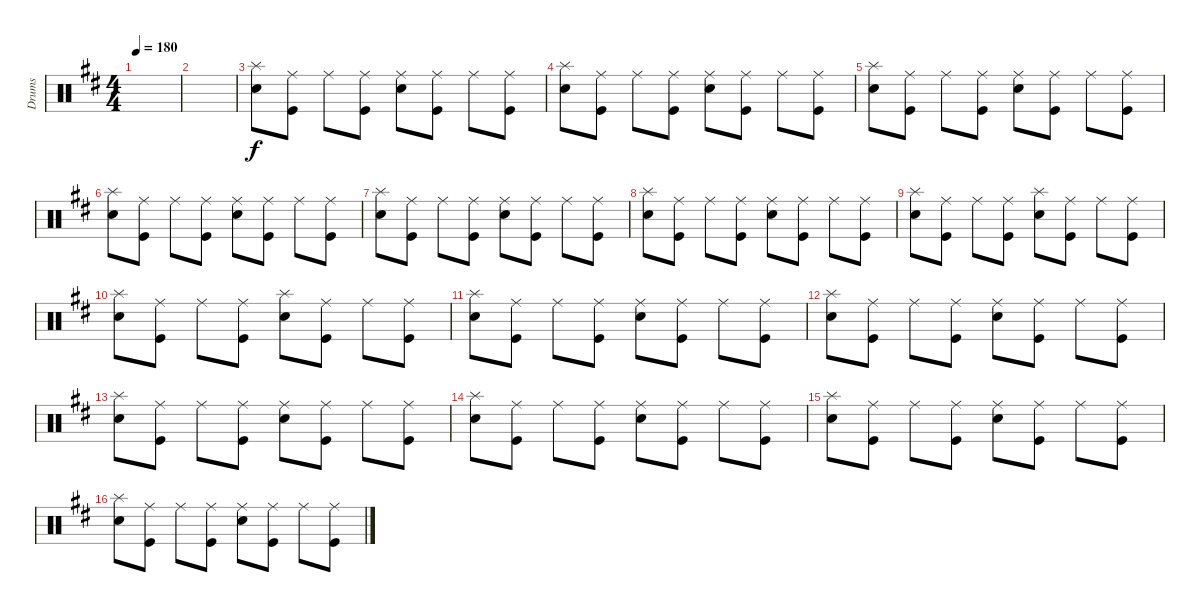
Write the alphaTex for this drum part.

\track ("Drums" "Drums") {instrument percussion}
\staff {score}
\articulation defaults
\ts (4 4)
\tempo 180
\clef neutral
\ks d
|
|
("Snare (hit) 2" "Splash (hit)").8 ("Kick (hit)" "Ride (middle)").8 "Ride (middle)".8 ("Kick (hit)" "Ride (middle)").8 ("Ride (middle)" "Snare (hit) 2").8 ("Kick (hit)" "Ride (middle)").8 "Ride (middle)".8 ("Ride (middle)" "Kick (hit)").8 |
("Snare (hit) 2" "Splash (hit)").8 ("Kick (hit)" "Ride (middle)").8 "Ride (middle)".8 ("Kick (hit)" "Ride (middle)").8 ("Ride (middle)" "Snare (hit) 2").8 ("Kick (hit)" "Ride (middle)").8 "Ride (middle)".8 ("Ride (middle)" "Kick (hit)").8 |
("Snare (hit) 2" "Splash (hit)").8 ("Kick (hit)" "Ride (middle)").8 "Ride (middle)".8 ("Kick (hit)" "Ride (middle)").8 ("Ride (middle)" "Snare (hit) 2").8 ("Kick (hit)" "Ride (middle)").8 "Ride (middle)".8 ("Ride (middle)" "Kick (hit)").8 |
("Snare (hit) 2" "Splash (hit)").8 ("Kick (hit)" "Ride (middle)").8 "Ride (middle)".8 ("Kick (hit)" "Ride (middle)").8 ("Ride (middle)" "Snare (hit) 2").8 ("Kick (hit)" "Ride (middle)").8 "Ride (middle)".8 ("Ride (middle)" "Kick (hit)").8 |
("Snare (hit) 2" "Splash (hit)").8 ("Kick (hit)" "Ride (middle)").8 "Ride (middle)".8 ("Kick (hit)" "Ride (middle)").8 ("Ride (middle)" "Snare (hit) 2").8 ("Kick (hit)" "Ride (middle)").8 "Ride (middle)".8 ("Ride (middle)" "Kick (hit)").8 |
("Snare (hit) 2" "Splash (hit)").8 ("Kick (hit)" "Ride (middle)").8 "Ride (middle)".8 ("Kick (hit)" "Ride (middle)").8 ("Ride (middle)" "Snare (hit) 2").8 ("Kick (hit)" "Ride (middle)").8 "Ride (middle)".8 ("Ride (middle)" "Kick (hit)").8 |
("Snare (hit) 2" "Splash (hit)").8 ("Kick (hit)" "Ride (middle)").8 "Ride (middle)".8 ("Kick (hit)" "Ride (middle)").8 ("Snare (hit) 2" "Splash (hit)").8 ("Kick (hit)" "Ride (middle)").8 "Ride (middle)".8 ("Ride (middle)" "Kick (hit)").8 |
("Snare (hit) 2" "Splash (hit)").8 ("Kick (hit)" "Ride (middle)").8 "Ride (middle)".8 ("Kick (hit)" "Ride (middle)").8 ("Snare (hit) 2" "Splash (hit)").8 ("Kick (hit)" "Ride (middle)").8 "Ride (middle)".8 ("Ride (middle)" "Kick (hit)").8 |
("Snare (hit) 2" "Splash (hit)").8 ("Kick (hit)" "Ride (middle)").8 "Ride (middle)".8 ("Kick (hit)" "Ride (middle)").8 ("Ride (middle)" "Snare (hit) 2").8 ("Kick (hit)" "Ride (middle)").8 "Ride (middle)".8 ("Ride (middle)" "Kick (hit)").8 |
("Snare (hit) 2" "Splash (hit)").8 ("Kick (hit)" "Ride (middle)").8 "Ride (middle)".8 ("Kick (hit)" "Ride (middle)").8 ("Ride (middle)" "Snare (hit) 2").8 ("Kick (hit)" "Ride (middle)").8 "Ride (middle)".8 ("Ride (middle)" "Kick (hit)").8 |
("Snare (hit) 2" "Splash (hit)").8 ("Kick (hit)" "Ride (middle)").8 "Ride (middle)".8 ("Kick (hit)" "Ride (middle)").8 ("Ride (middle)" "Snare (hit) 2").8 ("Kick (hit)" "Ride (middle)").8 "Ride (middle)".8 ("Ride (middle)" "Kick (hit)").8 |
("Snare (hit) 2" "Splash (hit)").8 ("Kick (hit)" "Ride (middle)").8 "Ride (middle)".8 ("Kick (hit)" "Ride (middle)").8 ("Ride (middle)" "Snare (hit) 2").8 ("Kick (hit)" "Ride (middle)").8 "Ride (middle)".8 ("Ride (middle)" "Kick (hit)").8 |
("Snare (hit) 2" "Splash (hit)").8 ("Kick (hit)" "Ride (middle)").8 "Ride (middle)".8 ("Kick (hit)" "Ride (middle)").8 ("Ride (middle)" "Snare (hit) 2").8 ("Kick (hit)" "Ride (middle)").8 "Ride (middle)".8 ("Ride (middle)" "Kick (hit)").8 |
("Snare (hit) 2" "Splash (hit)").8 ("Kick (hit)" "Ride (middle)").8 "Ride (middle)".8 ("Kick (hit)" "Ride (middle)").8 ("Ride (middle)" "Snare (hit) 2").8 ("Kick (hit)" "Ride (middle)").8 "Ride (middle)".8 ("Ride (middle)" "Kick (hit)").8
